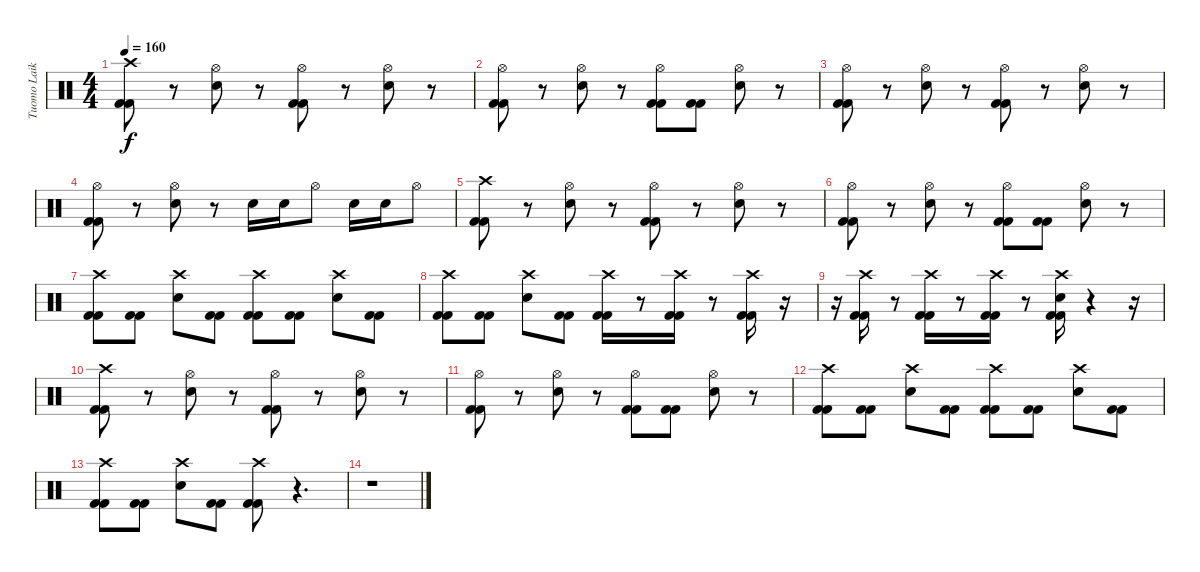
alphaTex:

\track ("Tuomo Laikari" "Tuomo Laik") {instrument percussion}
\staff {score}
\articulation defaults
\ts (4 4)
\tempo 160
\clef neutral
\ks c
("Crash high (hit)" "Kick (hit) 2" "Kick (hit) 2").8{dy f} r.8 ("Hi-Hat (open)" "Electric Snare (hit)").8 r.8 ("Hi-Hat (open)" "Kick (hit) 2" "Kick (hit) 2").8 r.8 ("Hi-Hat (open)" "Electric Snare (hit)").8 r.8 |
("Hi-Hat (open)" "Kick (hit) 2" "Kick (hit) 2").8 r.8 ("Hi-Hat (open)" "Electric Snare (hit)").8 r.8 ("Hi-Hat (open)" "Kick (hit) 2" "Kick (hit) 2").8 ("Kick (hit) 2" "Kick (hit) 2").8 ("Hi-Hat (open)" "Electric Snare (hit)").8 r.8 |
("Hi-Hat (open)" "Kick (hit) 2" "Kick (hit) 2").8 r.8 ("Hi-Hat (open)" "Electric Snare (hit)").8 r.8 ("Hi-Hat (open)" "Kick (hit) 2" "Kick (hit) 2").8 r.8 ("Hi-Hat (open)" "Electric Snare (hit)").8 r.8 |
("Hi-Hat (open)" "Kick (hit) 2" "Kick (hit) 2").8 r.8 ("Hi-Hat (open)" "Electric Snare (hit)").8 r.8 "Electric Snare (hit)".16 "Electric Snare (hit)".16 "Hi-Hat (open)".8 "Electric Snare (hit)".16 "Electric Snare (hit)".16 "Hi-Hat (open)".8 |
("Crash high (hit)" "Kick (hit) 2" "Kick (hit) 2").8 r.8 ("Hi-Hat (open)" "Electric Snare (hit)").8 r.8 ("Hi-Hat (open)" "Kick (hit) 2" "Kick (hit) 2").8 r.8 ("Hi-Hat (open)" "Electric Snare (hit)").8 r.8 |
("Hi-Hat (open)" "Kick (hit) 2" "Kick (hit) 2").8 r.8 ("Hi-Hat (open)" "Electric Snare (hit)").8 r.8 ("Hi-Hat (open)" "Kick (hit) 2" "Kick (hit) 2").8 ("Kick (hit) 2" "Kick (hit) 2").8 ("Hi-Hat (open)" "Electric Snare (hit)").8 r.8 |
("Crash high (hit)" "Kick (hit) 2" "Kick (hit) 2").8 ("Kick (hit) 2" "Kick (hit) 2").8 ("Crash high (hit)" "Electric Snare (hit)").8 ("Kick (hit) 2" "Kick (hit) 2").8 ("Crash high (hit)" "Kick (hit) 2" "Kick (hit) 2").8 ("Kick (hit) 2" "Kick (hit) 2").8 ("Crash high (hit)" "Electric Snare (hit)").8 ("Kick (hit) 2" "Kick (hit) 2").8 |
("Crash high (hit)" "Kick (hit) 2" "Kick (hit) 2").8 ("Kick (hit) 2" "Kick (hit) 2").8 ("Crash high (hit)" "Electric Snare (hit)").8 ("Kick (hit) 2" "Kick (hit) 2").8 ("Crash high (hit)" "Kick (hit) 2" "Kick (hit) 2").16 r.8 ("Crash high (hit)" "Kick (hit) 2" "Kick (hit) 2").16 r.8 ("Crash high (hit)" "Kick (hit) 2" "Kick (hit) 2").16 r.16 |
r.16 ("Crash high (hit)" "Kick (hit) 2" "Kick (hit) 2").16 r.8 ("Crash high (hit)" "Kick (hit) 2" "Kick (hit) 2").16 r.8 ("Crash high (hit)" "Kick (hit) 2" "Kick (hit) 2").16 r.8 ("Crash high (hit)" "Electric Snare (hit)" "Kick (hit) 2" "Kick (hit) 2").16 r.4 r.16 |
("Crash high (hit)" "Kick (hit) 2" "Kick (hit) 2").8 r.8 ("Hi-Hat (open)" "Electric Snare (hit)").8 r.8 ("Hi-Hat (open)" "Kick (hit) 2" "Kick (hit) 2").8 r.8 ("Hi-Hat (open)" "Electric Snare (hit)").8 r.8 |
("Hi-Hat (open)" "Kick (hit) 2" "Kick (hit) 2").8 r.8 ("Hi-Hat (open)" "Electric Snare (hit)").8 r.8 ("Hi-Hat (open)" "Kick (hit) 2" "Kick (hit) 2").8 ("Kick (hit) 2" "Kick (hit) 2").8 ("Hi-Hat (open)" "Electric Snare (hit)").8 r.8 |
("Crash high (hit)" "Kick (hit) 2" "Kick (hit) 2").8 ("Kick (hit) 2" "Kick (hit) 2").8 ("Crash high (hit)" "Electric Snare (hit)").8 ("Kick (hit) 2" "Kick (hit) 2").8 ("Crash high (hit)" "Kick (hit) 2" "Kick (hit) 2").8 ("Kick (hit) 2" "Kick (hit) 2").8 ("Crash high (hit)" "Electric Snare (hit)").8 ("Kick (hit) 2" "Kick (hit) 2").8 |
("Crash high (hit)" "Kick (hit) 2" "Kick (hit) 2").8 ("Kick (hit) 2" "Kick (hit) 2").8 ("Crash high (hit)" "Electric Snare (hit)").8 ("Kick (hit) 2" "Kick (hit) 2").8 ("Crash high (hit)" "Kick (hit) 2" "Kick (hit) 2").8 r.4{d} |
r.1
